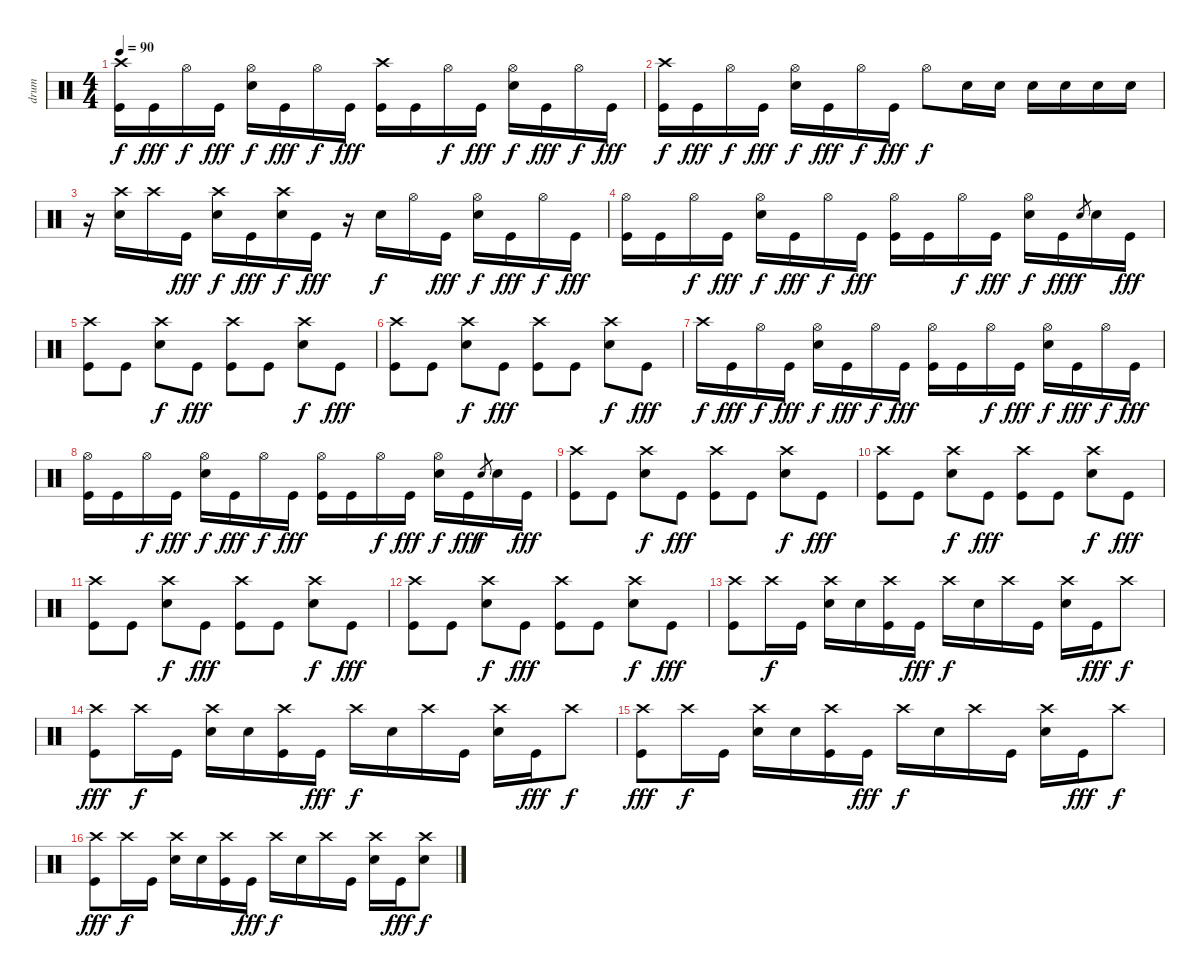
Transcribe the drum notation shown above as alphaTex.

\track ("drum" "drum") {instrument percussion}
\staff {score}
\articulation defaults
\ts (4 4)
\tempo 90
\clef neutral
\ks c
("Crash high (hit)" "Kick (hit)").16{dy f} "Kick (hit)".16{dy fff} "Hi-Hat (open)".16{dy f} "Kick (hit)".16{dy fff} ("Hi-Hat (open)" "Electric Snare (hit)").16{dy f} "Kick (hit)".16{dy fff} "Hi-Hat (open)".16{dy f} "Kick (hit)".16{dy fff} ("Crash high (hit)" "Kick (hit)").16 "Kick (hit)".16 "Hi-Hat (open)".16{dy f} "Kick (hit)".16{dy fff} ("Hi-Hat (open)" "Electric Snare (hit)").16{dy f} "Kick (hit)".16{dy fff} "Hi-Hat (open)".16{dy f} "Kick (hit)".16{dy fff} |
("Crash high (hit)" "Kick (hit)").16{dy f} "Kick (hit)".16{dy fff} "Hi-Hat (open)".16{dy f} "Kick (hit)".16{dy fff} ("Hi-Hat (open)" "Electric Snare (hit)").16{dy f} "Kick (hit)".16{dy fff} "Hi-Hat (open)".16{dy f} "Kick (hit)".16{dy fff} "Hi-Hat (open)".8{dy f} "Electric Snare (hit)".16 "Electric Snare (hit)".16 "Electric Snare (hit)".16 "Electric Snare (hit)".16 "Electric Snare (hit)".16 "Electric Snare (hit)".16 |
r.16 ("Crash high (hit)" "Electric Snare (hit)").16 "Crash high (hit)".16 "Kick (hit)".16{dy fff} ("Crash high (hit)" "Electric Snare (hit)").16{dy f} "Kick (hit)".16{dy fff} ("Crash high (hit)" "Electric Snare (hit)").16{dy f} "Kick (hit)".16{dy fff} r.16 "Electric Snare (hit)".16{dy f} "Hi-Hat (open)".16 "Kick (hit)".16{dy fff} ("Hi-Hat (open)" "Electric Snare (hit)").16{dy f} "Kick (hit)".16{dy fff} "Hi-Hat (open)".16{dy f} "Kick (hit)".16{dy fff} |
("Hi-Hat (open)" "Kick (hit)").16 "Kick (hit)".16 "Hi-Hat (open)".16{dy f} "Kick (hit)".16{dy fff} ("Hi-Hat (open)" "Electric Snare (hit)").16{dy f} "Kick (hit)".16{dy fff} "Hi-Hat (open)".16{dy f} "Kick (hit)".16{dy fff} ("Hi-Hat (open)" "Kick (hit)").16 "Kick (hit)".16 "Hi-Hat (open)".16{dy f} "Kick (hit)".16{dy fff} ("Hi-Hat (open)" "Electric Snare (hit)").16{dy f} "Kick (hit)".16{dy fff} "Electric Snare (hit)".8{gr dy f} "Electric Snare (hit)".16 "Kick (hit)".16{dy fff} |
("Crash high (hit)" "Kick (hit)").8 "Kick (hit)".8 ("Crash high (hit)" "Electric Snare (hit)").8{dy f} "Kick (hit)".8{dy fff} ("Crash high (hit)" "Kick (hit)").8 "Kick (hit)".8 ("Crash high (hit)" "Electric Snare (hit)").8{dy f} "Kick (hit)".8{dy fff} |
("Crash high (hit)" "Kick (hit)").8 "Kick (hit)".8 ("Crash high (hit)" "Electric Snare (hit)").8{dy f} "Kick (hit)".8{dy fff} ("Crash high (hit)" "Kick (hit)").8 "Kick (hit)".8 ("Crash high (hit)" "Electric Snare (hit)").8{dy f} "Kick (hit)".8{dy fff} |
"Crash high (hit)".16{dy f} "Kick (hit)".16{dy fff} "Hi-Hat (open)".16{dy f} "Kick (hit)".16{dy fff} ("Hi-Hat (open)" "Electric Snare (hit)").16{dy f} "Kick (hit)".16{dy fff} "Hi-Hat (open)".16{dy f} "Kick (hit)".16{dy fff} ("Hi-Hat (open)" "Kick (hit)").16 "Kick (hit)".16 "Hi-Hat (open)".16{dy f} "Kick (hit)".16{dy fff} ("Hi-Hat (open)" "Electric Snare (hit)").16{dy f} "Kick (hit)".16{dy fff} "Hi-Hat (open)".16{dy f} "Kick (hit)".16{dy fff} |
("Hi-Hat (open)" "Kick (hit)").16 "Kick (hit)".16 "Hi-Hat (open)".16{dy f} "Kick (hit)".16{dy fff} ("Hi-Hat (open)" "Electric Snare (hit)").16{dy f} "Kick (hit)".16{dy fff} "Hi-Hat (open)".16{dy f} "Kick (hit)".16{dy fff} ("Hi-Hat (open)" "Kick (hit)").16 "Kick (hit)".16 "Hi-Hat (open)".16{dy f} "Kick (hit)".16{dy fff} ("Hi-Hat (open)" "Electric Snare (hit)").16{dy f} "Kick (hit)".16{dy fff} "Electric Snare (hit)".8{gr dy f} "Electric Snare (hit)".16 "Kick (hit)".16{dy fff} |
("Crash high (hit)" "Kick (hit)").8 "Kick (hit)".8 ("Crash high (hit)" "Electric Snare (hit)").8{dy f} "Kick (hit)".8{dy fff} ("Crash high (hit)" "Kick (hit)").8 "Kick (hit)".8 ("Crash high (hit)" "Electric Snare (hit)").8{dy f} "Kick (hit)".8{dy fff} |
("Crash high (hit)" "Kick (hit)").8 "Kick (hit)".8 ("Crash high (hit)" "Electric Snare (hit)").8{dy f} "Kick (hit)".8{dy fff} ("Crash high (hit)" "Kick (hit)").8 "Kick (hit)".8 ("Crash high (hit)" "Electric Snare (hit)").8{dy f} "Kick (hit)".8{dy fff} |
("Crash high (hit)" "Kick (hit)").8 "Kick (hit)".8 ("Crash high (hit)" "Electric Snare (hit)").8{dy f} "Kick (hit)".8{dy fff} ("Crash high (hit)" "Kick (hit)").8 "Kick (hit)".8 ("Crash high (hit)" "Electric Snare (hit)").8{dy f} "Kick (hit)".8{dy fff} |
("Crash high (hit)" "Kick (hit)").8 "Kick (hit)".8 ("Crash high (hit)" "Electric Snare (hit)").8{dy f} "Kick (hit)".8{dy fff} ("Crash high (hit)" "Kick (hit)").8 "Kick (hit)".8 ("Crash high (hit)" "Electric Snare (hit)").8{dy f} "Kick (hit)".8{dy fff} |
("Crash high (hit)" "Kick (hit)").8 "Crash high (hit)".16{dy f} "Kick (hit)".16 ("Crash high (hit)" "Electric Snare (hit)").16 "Electric Snare (hit)".16 ("Crash high (hit)" "Kick (hit)").16 "Kick (hit)".16{dy fff} "Crash high (hit)".16{dy f} "Electric Snare (hit)".16 "Crash high (hit)".16 "Kick (hit)".16 ("Crash high (hit)" "Electric Snare (hit)").16 "Kick (hit)".16{dy fff} "Crash high (hit)".8{dy f} |
("Crash high (hit)" "Kick (hit)").8{dy fff} "Crash high (hit)".16{dy f} "Kick (hit)".16 ("Crash high (hit)" "Electric Snare (hit)").16 "Electric Snare (hit)".16 ("Crash high (hit)" "Kick (hit)").16 "Kick (hit)".16{dy fff} "Crash high (hit)".16{dy f} "Electric Snare (hit)".16 "Crash high (hit)".16 "Kick (hit)".16 ("Crash high (hit)" "Electric Snare (hit)").16 "Kick (hit)".16{dy fff} "Crash high (hit)".8{dy f} |
("Crash high (hit)" "Kick (hit)").8{dy fff} "Crash high (hit)".16{dy f} "Kick (hit)".16 ("Crash high (hit)" "Electric Snare (hit)").16 "Electric Snare (hit)".16 ("Crash high (hit)" "Kick (hit)").16 "Kick (hit)".16{dy fff} "Crash high (hit)".16{dy f} "Electric Snare (hit)".16 "Crash high (hit)".16 "Kick (hit)".16 ("Crash high (hit)" "Electric Snare (hit)").16 "Kick (hit)".16{dy fff} "Crash high (hit)".8{dy f} |
("Crash high (hit)" "Kick (hit)").8{dy fff} "Crash high (hit)".16{dy f} "Kick (hit)".16 ("Crash high (hit)" "Electric Snare (hit)").16 "Electric Snare (hit)".16 ("Crash high (hit)" "Kick (hit)").16 "Kick (hit)".16{dy fff} "Crash high (hit)".16{dy f} "Electric Snare (hit)".16 "Crash high (hit)".16 "Kick (hit)".16 ("Crash high (hit)" "Electric Snare (hit)").16 "Kick (hit)".16{dy fff} ("Crash high (hit)" "Electric Snare (hit)").8{dy f}
